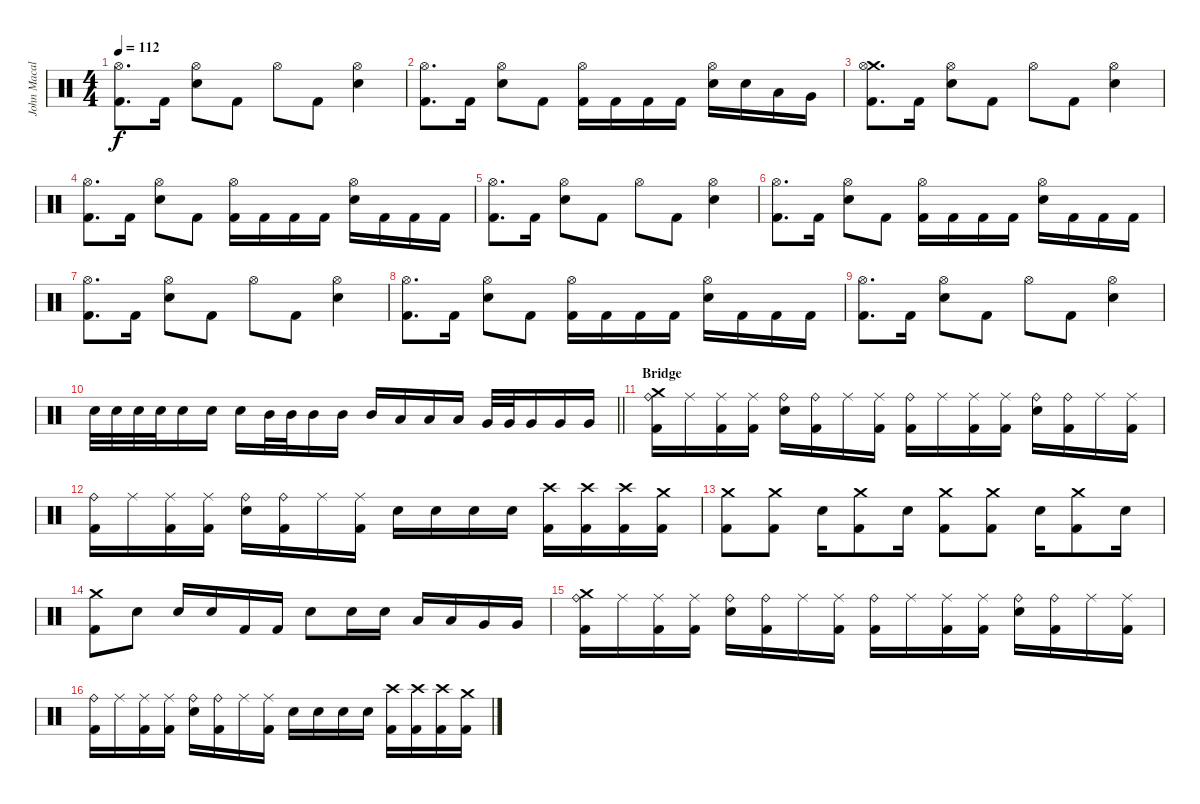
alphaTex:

\track ("John Macaluso" "John Macal") {instrument percussion}
\staff {score}
\articulation defaults
\ts (4 4)
\tempo 112
\clef neutral
\ks c
("Hi-Hat (open)" "Kick (hit) 2").8{d dy f} "Kick (hit) 2".16 ("Hi-Hat (open)" "Snare (hit) 2").8 "Kick (hit) 2".8 "Hi-Hat (open)".8 "Kick (hit) 2".8 ("Hi-Hat (open)" "Snare (hit) 2").4 |
("Hi-Hat (open)" "Kick (hit) 2").8{d} "Kick (hit) 2".16 ("Hi-Hat (open)" "Snare (hit) 2").8 "Kick (hit) 2".8 ("Hi-Hat (open)" "Kick (hit) 2").16 "Kick (hit) 2".16 "Kick (hit) 2".16 "Kick (hit) 2".16 ("Hi-Hat (open)" "Snare (hit) 2").16 "Snare (hit) 2".16 "Low Tom (hit)".16 "Very Low Tom (hit)".16 |
("Crash medium (hit)" "Hi-Hat (open)" "Kick (hit) 2").8{d} "Kick (hit) 2".16 ("Hi-Hat (open)" "Snare (hit) 2").8 "Kick (hit) 2".8 "Hi-Hat (open)".8 "Kick (hit) 2".8 ("Hi-Hat (open)" "Snare (hit) 2").4 |
("Hi-Hat (open)" "Kick (hit) 2").8{d} "Kick (hit) 2".16 ("Hi-Hat (open)" "Snare (hit) 2").8 "Kick (hit) 2".8 ("Hi-Hat (open)" "Kick (hit) 2").16 "Kick (hit) 2".16 "Kick (hit) 2".16 "Kick (hit) 2".16 ("Hi-Hat (open)" "Snare (hit) 2").16 "Kick (hit) 2".16 "Kick (hit) 2".16 "Kick (hit) 2".16 |
("Hi-Hat (open)" "Kick (hit) 2").8{d} "Kick (hit) 2".16 ("Hi-Hat (open)" "Snare (hit) 2").8 "Kick (hit) 2".8 "Hi-Hat (open)".8 "Kick (hit) 2".8 ("Hi-Hat (open)" "Snare (hit) 2").4 |
("Hi-Hat (open)" "Kick (hit) 2").8{d} "Kick (hit) 2".16 ("Hi-Hat (open)" "Snare (hit) 2").8 "Kick (hit) 2".8 ("Hi-Hat (open)" "Kick (hit) 2").16 "Kick (hit) 2".16 "Kick (hit) 2".16 "Kick (hit) 2".16 ("Hi-Hat (open)" "Snare (hit) 2").16 "Kick (hit) 2".16 "Kick (hit) 2".16 "Kick (hit) 2".16 |
("Hi-Hat (open)" "Kick (hit) 2").8{d} "Kick (hit) 2".16 ("Hi-Hat (open)" "Snare (hit) 2").8 "Kick (hit) 2".8 "Hi-Hat (open)".8 "Kick (hit) 2".8 ("Hi-Hat (open)" "Snare (hit) 2").4 |
("Hi-Hat (open)" "Kick (hit) 2").8{d} "Kick (hit) 2".16 ("Hi-Hat (open)" "Snare (hit) 2").8 "Kick (hit) 2".8 ("Hi-Hat (open)" "Kick (hit) 2").16 "Kick (hit) 2".16 "Kick (hit) 2".16 "Kick (hit) 2".16 ("Hi-Hat (open)" "Snare (hit) 2").16 "Kick (hit) 2".16 "Kick (hit) 2".16 "Kick (hit) 2".16 |
("Hi-Hat (open)" "Kick (hit) 2").8{d} "Kick (hit) 2".16 ("Hi-Hat (open)" "Snare (hit) 2").8 "Kick (hit) 2".8 "Hi-Hat (open)".8 "Kick (hit) 2".8 ("Hi-Hat (open)" "Snare (hit) 2").4 |
\barLineRight lightlight "Snare (hit) 2".32 "Snare (hit) 2".32 "Snare (hit) 2".32 "Snare (hit) 2".32 "Snare (hit) 2".16 "Snare (hit) 2".16 "Snare (hit) 2".16 "Mid Tom (hit)".32 "Mid Tom (hit)".32 "Mid Tom (hit)".16 "Mid Tom (hit)".16 "Mid Tom (hit)".16 "Low Tom (hit)".16 "Low Tom (hit)".16 "Low Tom (hit)".16 "Very Low Tom (hit)".32 "Very Low Tom (hit)".32 "Very Low Tom (hit)".16 "Very Low Tom (hit)".16 "Very Low Tom (hit)".16
|
\section ("" "Bridge")
("Crash medium (hit)" "Ride (bell)" "Kick (hit) 2").16 "Ride (middle)".16 ("Ride (middle)" "Kick (hit) 2").16 ("Ride (middle)" "Kick (hit) 2").16 ("Ride (bell)" "Snare (hit) 2").16 ("Ride (bell)" "Kick (hit) 2").16 "Ride (middle)".16 ("Ride (middle)" "Kick (hit) 2").16 ("Ride (bell)" "Kick (hit) 2").16 "Ride (middle)".16 ("Ride (middle)" "Kick (hit) 2").16 ("Ride (middle)" "Kick (hit) 2").16 ("Ride (bell)" "Snare (hit) 2").16 ("Ride (bell)" "Kick (hit) 2").16 "Ride (middle)".16 ("Ride (middle)" "Kick (hit) 2").16 |
("Ride (bell)" "Kick (hit) 2").16 "Ride (middle)".16 ("Ride (middle)" "Kick (hit) 2").16 ("Ride (middle)" "Kick (hit) 2").16 ("Ride (bell)" "Snare (hit) 2").16 ("Ride (bell)" "Kick (hit) 2").16 "Ride (middle)".16 ("Ride (middle)" "Kick (hit) 2").16 "Snare (hit) 2".16 "Snare (hit) 2".16 "Snare (hit) 2".16 "Snare (hit) 2".16 ("Crash high (hit)" "Kick (hit) 2").16 ("Crash high (hit)" "Kick (hit) 2").16 ("Crash high (hit)" "Kick (hit) 2").16 ("Crash medium (hit)" "Kick (hit) 2").16 |
("Crash medium (hit)" "Kick (hit) 2").8 ("Crash medium (hit)" "Kick (hit) 2").8 "Snare (hit) 2".16 ("Crash medium (hit)" "Kick (hit) 2").8 "Snare (hit) 2".16 ("Crash medium (hit)" "Kick (hit) 2").8 ("Crash medium (hit)" "Kick (hit) 2").8 "Snare (hit) 2".16 ("Crash medium (hit)" "Kick (hit) 2").8 "Snare (hit) 2".16 |
("Crash medium (hit)" "Kick (hit) 2").8 "Snare (hit) 2".8 "Snare (hit) 2".16 "Snare (hit) 2".16 "Kick (hit) 2".16 "Kick (hit) 2".16 "Snare (hit) 2".8 "Snare (hit) 2".16 "Snare (hit) 2".16 "Low Tom (hit)".16 "Low Tom (hit)".16 "Very Low Tom (hit)".16 "Very Low Tom (hit)".16 |
("Crash medium (hit)" "Ride (bell)" "Kick (hit) 2").16 "Ride (middle)".16 ("Ride (middle)" "Kick (hit) 2").16 ("Ride (middle)" "Kick (hit) 2").16 ("Ride (bell)" "Snare (hit) 2").16 ("Ride (bell)" "Kick (hit) 2").16 "Ride (middle)".16 ("Ride (middle)" "Kick (hit) 2").16 ("Ride (bell)" "Kick (hit) 2").16 "Ride (middle)".16 ("Ride (middle)" "Kick (hit) 2").16 ("Ride (middle)" "Kick (hit) 2").16 ("Ride (bell)" "Snare (hit) 2").16 ("Ride (bell)" "Kick (hit) 2").16 "Ride (middle)".16 ("Ride (middle)" "Kick (hit) 2").16 |
("Ride (bell)" "Kick (hit) 2").16 "Ride (middle)".16 ("Ride (middle)" "Kick (hit) 2").16 ("Ride (middle)" "Kick (hit) 2").16 ("Ride (bell)" "Snare (hit) 2").16 ("Ride (bell)" "Kick (hit) 2").16 "Ride (middle)".16 ("Ride (middle)" "Kick (hit) 2").16 "Snare (hit) 2".16 "Snare (hit) 2".16 "Snare (hit) 2".16 "Snare (hit) 2".16 ("Crash high (hit)" "Kick (hit) 2").16 ("Crash high (hit)" "Kick (hit) 2").16 ("Crash high (hit)" "Kick (hit) 2").16 ("Crash medium (hit)" "Kick (hit) 2").16
